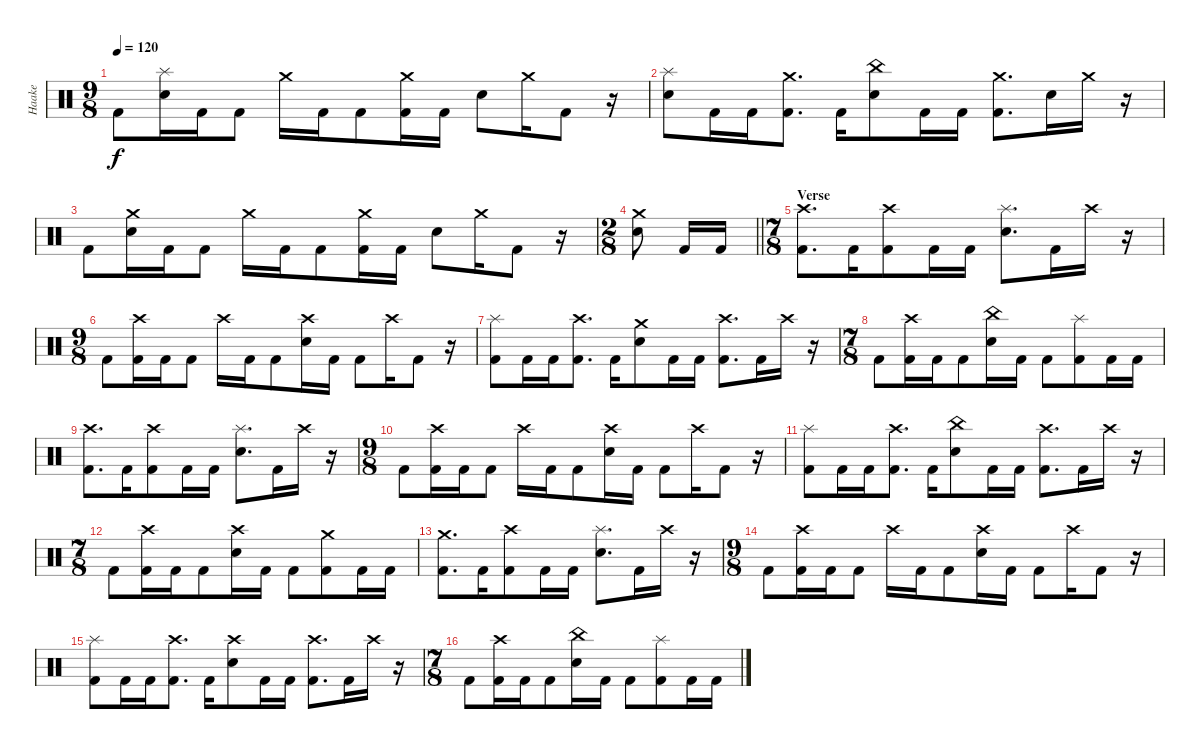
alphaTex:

\track ("Haake" "Haake") {instrument percussion}
\staff {score}
\articulation defaults
\ts (9 8)
\tempo 120
\clef neutral
\ks c "Kick (hit) 2".8{dy f}
("Splash (hit)" "Electric Snare (hit)").16 "Kick (hit) 2".16 "Kick (hit) 2".8 "Crash medium (hit)".16 "Kick (hit) 2".16 "Kick (hit) 2".8 ("Crash medium (hit)" "Kick (hit) 2").16 "Kick (hit) 2".16 "Electric Snare (hit)".8 "Crash medium (hit)".16 "Kick (hit) 2".8 r.16 |
("Splash (hit)" "Electric Snare (hit)").8 "Kick (hit) 2".16 "Kick (hit) 2".16 ("Crash medium (hit)" "Kick (hit) 2").8{d} "Kick (hit) 2".16 ("China (hit)" "Electric Snare (hit)").8 "Kick (hit) 2".16 "Kick (hit) 2".16 ("Crash medium (hit)" "Kick (hit) 2").8{d} "Electric Snare (hit)".16 "Crash medium (hit)".16 r.16 |
"Kick (hit) 2".8 ("Crash medium (hit)" "Electric Snare (hit)").16 "Kick (hit) 2".16 "Kick (hit) 2".8 "Crash medium (hit)".16 "Kick (hit) 2".16 "Kick (hit) 2".8 ("Crash medium (hit)" "Kick (hit) 2").16 "Kick (hit) 2".16 "Electric Snare (hit)".8 "Crash medium (hit)".16 "Kick (hit) 2".8 r.16 |
\ts (2 8)
\barLineRight lightlight
("Crash medium (hit)" "Electric Snare (hit)").8 "Kick (hit) 2".16 "Kick (hit) 2".16 |
\ts (7 8)
\section ("" "Verse")
("Crash high (hit)" "Kick (hit) 2").8{d} "Kick (hit) 2".16 ("Crash high (hit)" "Kick (hit) 2").8 "Kick (hit) 2".16 "Kick (hit) 2".16 ("Splash (hit)" "Electric Snare (hit)").8{d} "Kick (hit) 2".16 "Crash high (hit)".16 r.16 |
\ts (9 8)
"Kick (hit) 2".8 ("Crash high (hit)" "Kick (hit) 2").16 "Kick (hit) 2".16 "Kick (hit) 2".8 "Crash high (hit)".16 "Kick (hit) 2".16 "Kick (hit) 2".8 ("Crash high (hit)" "Electric Snare (hit)").16 "Kick (hit) 2".16 "Kick (hit) 2".8 "Crash high (hit)".16 "Kick (hit) 2".8 r.16 |
("Splash (hit)" "Kick (hit) 2").8 "Kick (hit) 2".16 "Kick (hit) 2".16 ("Crash high (hit)" "Kick (hit) 2").8{d} "Kick (hit) 2".16 ("Crash medium (hit)" "Electric Snare (hit)").8 "Kick (hit) 2".16 "Kick (hit) 2".16 ("Crash high (hit)" "Kick (hit) 2").8{d} "Kick (hit) 2".16 "Crash high (hit)".16 r.16 |
\ts (7 8)
"Kick (hit) 2".8 ("Crash high (hit)" "Kick (hit) 2").16 "Kick (hit) 2".16 "Kick (hit) 2".8 ("China (hit)" "Electric Snare (hit)").16 "Kick (hit) 2".16 "Kick (hit) 2".8 ("Splash (hit)" "Kick (hit) 2").8 "Kick (hit) 2".16 "Kick (hit) 2".16 |
("Crash high (hit)" "Kick (hit) 2").8{d} "Kick (hit) 2".16 ("Crash high (hit)" "Kick (hit) 2").8 "Kick (hit) 2".16 "Kick (hit) 2".16 ("Splash (hit)" "Electric Snare (hit)").8{d} "Kick (hit) 2".16 "Crash high (hit)".16 r.16 |
\ts (9 8)
"Kick (hit) 2".8 ("Crash high (hit)" "Kick (hit) 2").16 "Kick (hit) 2".16 "Kick (hit) 2".8 "Crash high (hit)".16 "Kick (hit) 2".16 "Kick (hit) 2".8 ("Crash high (hit)" "Electric Snare (hit)").16 "Kick (hit) 2".16 "Kick (hit) 2".8 "Crash high (hit)".16 "Kick (hit) 2".8 r.16 |
("Splash (hit)" "Kick (hit) 2").8 "Kick (hit) 2".16 "Kick (hit) 2".16 ("Crash high (hit)" "Kick (hit) 2").8{d} "Kick (hit) 2".16 ("China (hit)" "Electric Snare (hit)").8 "Kick (hit) 2".16 "Kick (hit) 2".16 ("Crash high (hit)" "Kick (hit) 2").8{d} "Kick (hit) 2".16 "Crash high (hit)".16 r.16 |
\ts (7 8)
"Kick (hit) 2".8 ("Crash high (hit)" "Kick (hit) 2").16 "Kick (hit) 2".16 "Kick (hit) 2".8 ("Crash high (hit)" "Electric Snare (hit)").16 "Kick (hit) 2".16 "Kick (hit) 2".8 ("Crash medium (hit)" "Kick (hit) 2").8 "Kick (hit) 2".16 "Kick (hit) 2".16 |
("Crash medium (hit)" "Kick (hit) 2").8{d} "Kick (hit) 2".16 ("Crash high (hit)" "Kick (hit) 2").8 "Kick (hit) 2".16 "Kick (hit) 2".16 ("Splash (hit)" "Electric Snare (hit)").8{d} "Kick (hit) 2".16 "Crash high (hit)".16 r.16 |
\ts (9 8)
"Kick (hit) 2".8 ("Crash high (hit)" "Kick (hit) 2").16 "Kick (hit) 2".16 "Kick (hit) 2".8 "Crash high (hit)".16 "Kick (hit) 2".16 "Kick (hit) 2".8 ("Crash high (hit)" "Electric Snare (hit)").16 "Kick (hit) 2".16 "Kick (hit) 2".8 "Crash high (hit)".16 "Kick (hit) 2".8 r.16 |
("Splash (hit)" "Kick (hit) 2").8 "Kick (hit) 2".16 "Kick (hit) 2".16 ("Crash high (hit)" "Kick (hit) 2").8{d} "Kick (hit) 2".16 ("Crash high (hit)" "Electric Snare (hit)").8 "Kick (hit) 2".16 "Kick (hit) 2".16 ("Crash high (hit)" "Kick (hit) 2").8{d} "Kick (hit) 2".16 "Crash high (hit)".16 r.16 |
\ts (7 8)
"Kick (hit) 2".8 ("Crash high (hit)" "Kick (hit) 2").16 "Kick (hit) 2".16 "Kick (hit) 2".8 ("China (hit)" "Electric Snare (hit)").16 "Kick (hit) 2".16 "Kick (hit) 2".8 ("Splash (hit)" "Kick (hit) 2").8 "Kick (hit) 2".16 "Kick (hit) 2".16
